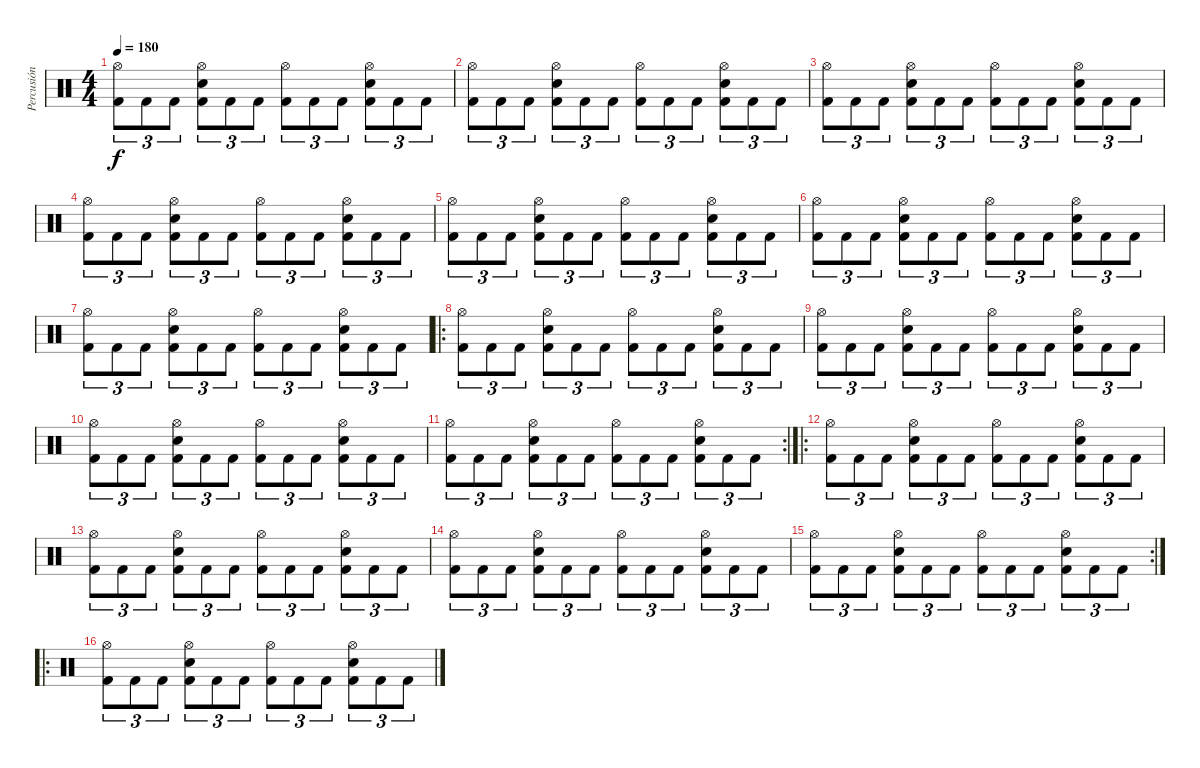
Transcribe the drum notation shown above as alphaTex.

\track ("Percusión" "Percusión") {instrument percussion}
\staff {score}
\articulation defaults
\ts (4 4)
\tempo 180
\clef neutral
\ks c
("Hi-Hat (open)" "Kick (hit) 2").8{tu (3 2) dy f} "Kick (hit) 2".8{tu (3 2)} "Kick (hit) 2".8{tu (3 2)} ("Hi-Hat (open)" "Snare (hit) 2" "Kick (hit) 2").8{tu (3 2)} "Kick (hit) 2".8{tu (3 2)} "Kick (hit) 2".8{tu (3 2)} ("Hi-Hat (open)" "Kick (hit) 2").8{tu (3 2)} "Kick (hit) 2".8{tu (3 2)} "Kick (hit) 2".8{tu (3 2)} ("Hi-Hat (open)" "Snare (hit) 2" "Kick (hit) 2").8{tu (3 2)} "Kick (hit) 2".8{tu (3 2)} "Kick (hit) 2".8{tu (3 2)} |
("Hi-Hat (open)" "Kick (hit) 2").8{tu (3 2)} "Kick (hit) 2".8{tu (3 2)} "Kick (hit) 2".8{tu (3 2)} ("Hi-Hat (open)" "Snare (hit) 2" "Kick (hit) 2").8{tu (3 2)} "Kick (hit) 2".8{tu (3 2)} "Kick (hit) 2".8{tu (3 2)} ("Hi-Hat (open)" "Kick (hit) 2").8{tu (3 2)} "Kick (hit) 2".8{tu (3 2)} "Kick (hit) 2".8{tu (3 2)} ("Hi-Hat (open)" "Snare (hit) 2" "Kick (hit) 2").8{tu (3 2)} "Kick (hit) 2".8{tu (3 2)} "Kick (hit) 2".8{tu (3 2)} |
("Hi-Hat (open)" "Kick (hit) 2").8{tu (3 2)} "Kick (hit) 2".8{tu (3 2)} "Kick (hit) 2".8{tu (3 2)} ("Hi-Hat (open)" "Snare (hit) 2" "Kick (hit) 2").8{tu (3 2)} "Kick (hit) 2".8{tu (3 2)} "Kick (hit) 2".8{tu (3 2)} ("Hi-Hat (open)" "Kick (hit) 2").8{tu (3 2)} "Kick (hit) 2".8{tu (3 2)} "Kick (hit) 2".8{tu (3 2)} ("Hi-Hat (open)" "Snare (hit) 2" "Kick (hit) 2").8{tu (3 2)} "Kick (hit) 2".8{tu (3 2)} "Kick (hit) 2".8{tu (3 2)} |
("Hi-Hat (open)" "Kick (hit) 2").8{tu (3 2)} "Kick (hit) 2".8{tu (3 2)} "Kick (hit) 2".8{tu (3 2)} ("Hi-Hat (open)" "Snare (hit) 2" "Kick (hit) 2").8{tu (3 2)} "Kick (hit) 2".8{tu (3 2)} "Kick (hit) 2".8{tu (3 2)} ("Hi-Hat (open)" "Kick (hit) 2").8{tu (3 2)} "Kick (hit) 2".8{tu (3 2)} "Kick (hit) 2".8{tu (3 2)} ("Hi-Hat (open)" "Snare (hit) 2" "Kick (hit) 2").8{tu (3 2)} "Kick (hit) 2".8{tu (3 2)} "Kick (hit) 2".8{tu (3 2)} |
("Hi-Hat (open)" "Kick (hit) 2").8{tu (3 2)} "Kick (hit) 2".8{tu (3 2)} "Kick (hit) 2".8{tu (3 2)} ("Hi-Hat (open)" "Snare (hit) 2" "Kick (hit) 2").8{tu (3 2)} "Kick (hit) 2".8{tu (3 2)} "Kick (hit) 2".8{tu (3 2)} ("Hi-Hat (open)" "Kick (hit) 2").8{tu (3 2)} "Kick (hit) 2".8{tu (3 2)} "Kick (hit) 2".8{tu (3 2)} ("Hi-Hat (open)" "Snare (hit) 2" "Kick (hit) 2").8{tu (3 2)} "Kick (hit) 2".8{tu (3 2)} "Kick (hit) 2".8{tu (3 2)} |
("Hi-Hat (open)" "Kick (hit) 2").8{tu (3 2)} "Kick (hit) 2".8{tu (3 2)} "Kick (hit) 2".8{tu (3 2)} ("Hi-Hat (open)" "Snare (hit) 2" "Kick (hit) 2").8{tu (3 2)} "Kick (hit) 2".8{tu (3 2)} "Kick (hit) 2".8{tu (3 2)} ("Hi-Hat (open)" "Kick (hit) 2").8{tu (3 2)} "Kick (hit) 2".8{tu (3 2)} "Kick (hit) 2".8{tu (3 2)} ("Hi-Hat (open)" "Snare (hit) 2" "Kick (hit) 2").8{tu (3 2)} "Kick (hit) 2".8{tu (3 2)} "Kick (hit) 2".8{tu (3 2)} |
("Hi-Hat (open)" "Kick (hit) 2").8{tu (3 2)} "Kick (hit) 2".8{tu (3 2)} "Kick (hit) 2".8{tu (3 2)} ("Hi-Hat (open)" "Snare (hit) 2" "Kick (hit) 2").8{tu (3 2)} "Kick (hit) 2".8{tu (3 2)} "Kick (hit) 2".8{tu (3 2)} ("Hi-Hat (open)" "Kick (hit) 2").8{tu (3 2)} "Kick (hit) 2".8{tu (3 2)} "Kick (hit) 2".8{tu (3 2)} ("Hi-Hat (open)" "Snare (hit) 2" "Kick (hit) 2").8{tu (3 2)} "Kick (hit) 2".8{tu (3 2)} "Kick (hit) 2".8{tu (3 2)} |
\ro
("Hi-Hat (open)" "Kick (hit) 2").8{tu (3 2)} "Kick (hit) 2".8{tu (3 2)} "Kick (hit) 2".8{tu (3 2)} ("Hi-Hat (open)" "Snare (hit) 2" "Kick (hit) 2").8{tu (3 2)} "Kick (hit) 2".8{tu (3 2)} "Kick (hit) 2".8{tu (3 2)} ("Hi-Hat (open)" "Kick (hit) 2").8{tu (3 2)} "Kick (hit) 2".8{tu (3 2)} "Kick (hit) 2".8{tu (3 2)} ("Hi-Hat (open)" "Snare (hit) 2" "Kick (hit) 2").8{tu (3 2)} "Kick (hit) 2".8{tu (3 2)} "Kick (hit) 2".8{tu (3 2)} |
("Hi-Hat (open)" "Kick (hit) 2").8{tu (3 2)} "Kick (hit) 2".8{tu (3 2)} "Kick (hit) 2".8{tu (3 2)} ("Hi-Hat (open)" "Snare (hit) 2" "Kick (hit) 2").8{tu (3 2)} "Kick (hit) 2".8{tu (3 2)} "Kick (hit) 2".8{tu (3 2)} ("Hi-Hat (open)" "Kick (hit) 2").8{tu (3 2)} "Kick (hit) 2".8{tu (3 2)} "Kick (hit) 2".8{tu (3 2)} ("Hi-Hat (open)" "Snare (hit) 2" "Kick (hit) 2").8{tu (3 2)} "Kick (hit) 2".8{tu (3 2)} "Kick (hit) 2".8{tu (3 2)} |
("Hi-Hat (open)" "Kick (hit) 2").8{tu (3 2)} "Kick (hit) 2".8{tu (3 2)} "Kick (hit) 2".8{tu (3 2)} ("Hi-Hat (open)" "Snare (hit) 2" "Kick (hit) 2").8{tu (3 2)} "Kick (hit) 2".8{tu (3 2)} "Kick (hit) 2".8{tu (3 2)} ("Hi-Hat (open)" "Kick (hit) 2").8{tu (3 2)} "Kick (hit) 2".8{tu (3 2)} "Kick (hit) 2".8{tu (3 2)} ("Hi-Hat (open)" "Snare (hit) 2" "Kick (hit) 2").8{tu (3 2)} "Kick (hit) 2".8{tu (3 2)} "Kick (hit) 2".8{tu (3 2)} |
\rc 2
("Hi-Hat (open)" "Kick (hit) 2").8{tu (3 2)} "Kick (hit) 2".8{tu (3 2)} "Kick (hit) 2".8{tu (3 2)} ("Hi-Hat (open)" "Snare (hit) 2" "Kick (hit) 2").8{tu (3 2)} "Kick (hit) 2".8{tu (3 2)} "Kick (hit) 2".8{tu (3 2)} ("Hi-Hat (open)" "Kick (hit) 2").8{tu (3 2)} "Kick (hit) 2".8{tu (3 2)} "Kick (hit) 2".8{tu (3 2)} ("Hi-Hat (open)" "Snare (hit) 2" "Kick (hit) 2").8{tu (3 2)} "Kick (hit) 2".8{tu (3 2)} "Kick (hit) 2".8{tu (3 2)} |
\ro
("Hi-Hat (open)" "Kick (hit) 2").8{tu (3 2)} "Kick (hit) 2".8{tu (3 2)} "Kick (hit) 2".8{tu (3 2)} ("Hi-Hat (open)" "Snare (hit) 2" "Kick (hit) 2").8{tu (3 2)} "Kick (hit) 2".8{tu (3 2)} "Kick (hit) 2".8{tu (3 2)} ("Hi-Hat (open)" "Kick (hit) 2").8{tu (3 2)} "Kick (hit) 2".8{tu (3 2)} "Kick (hit) 2".8{tu (3 2)} ("Hi-Hat (open)" "Snare (hit) 2" "Kick (hit) 2").8{tu (3 2)} "Kick (hit) 2".8{tu (3 2)} "Kick (hit) 2".8{tu (3 2)} |
("Hi-Hat (open)" "Kick (hit) 2").8{tu (3 2)} "Kick (hit) 2".8{tu (3 2)} "Kick (hit) 2".8{tu (3 2)} ("Hi-Hat (open)" "Snare (hit) 2" "Kick (hit) 2").8{tu (3 2)} "Kick (hit) 2".8{tu (3 2)} "Kick (hit) 2".8{tu (3 2)} ("Hi-Hat (open)" "Kick (hit) 2").8{tu (3 2)} "Kick (hit) 2".8{tu (3 2)} "Kick (hit) 2".8{tu (3 2)} ("Hi-Hat (open)" "Snare (hit) 2" "Kick (hit) 2").8{tu (3 2)} "Kick (hit) 2".8{tu (3 2)} "Kick (hit) 2".8{tu (3 2)} |
("Hi-Hat (open)" "Kick (hit) 2").8{tu (3 2)} "Kick (hit) 2".8{tu (3 2)} "Kick (hit) 2".8{tu (3 2)} ("Hi-Hat (open)" "Snare (hit) 2" "Kick (hit) 2").8{tu (3 2)} "Kick (hit) 2".8{tu (3 2)} "Kick (hit) 2".8{tu (3 2)} ("Hi-Hat (open)" "Kick (hit) 2").8{tu (3 2)} "Kick (hit) 2".8{tu (3 2)} "Kick (hit) 2".8{tu (3 2)} ("Hi-Hat (open)" "Snare (hit) 2" "Kick (hit) 2").8{tu (3 2)} "Kick (hit) 2".8{tu (3 2)} "Kick (hit) 2".8{tu (3 2)} |
\rc 2
("Hi-Hat (open)" "Kick (hit) 2").8{tu (3 2)} "Kick (hit) 2".8{tu (3 2)} "Kick (hit) 2".8{tu (3 2)} ("Hi-Hat (open)" "Snare (hit) 2" "Kick (hit) 2").8{tu (3 2)} "Kick (hit) 2".8{tu (3 2)} "Kick (hit) 2".8{tu (3 2)} ("Hi-Hat (open)" "Kick (hit) 2").8{tu (3 2)} "Kick (hit) 2".8{tu (3 2)} "Kick (hit) 2".8{tu (3 2)} ("Hi-Hat (open)" "Snare (hit) 2" "Kick (hit) 2").8{tu (3 2)} "Kick (hit) 2".8{tu (3 2)} "Kick (hit) 2".8{tu (3 2)} |
\ro
("Hi-Hat (open)" "Kick (hit) 2").8{tu (3 2)} "Kick (hit) 2".8{tu (3 2)} "Kick (hit) 2".8{tu (3 2)} ("Hi-Hat (open)" "Snare (hit) 2" "Kick (hit) 2").8{tu (3 2)} "Kick (hit) 2".8{tu (3 2)} "Kick (hit) 2".8{tu (3 2)} ("Hi-Hat (open)" "Kick (hit) 2").8{tu (3 2)} "Kick (hit) 2".8{tu (3 2)} "Kick (hit) 2".8{tu (3 2)} ("Hi-Hat (open)" "Snare (hit) 2" "Kick (hit) 2").8{tu (3 2)} "Kick (hit) 2".8{tu (3 2)} "Kick (hit) 2".8{tu (3 2)}
